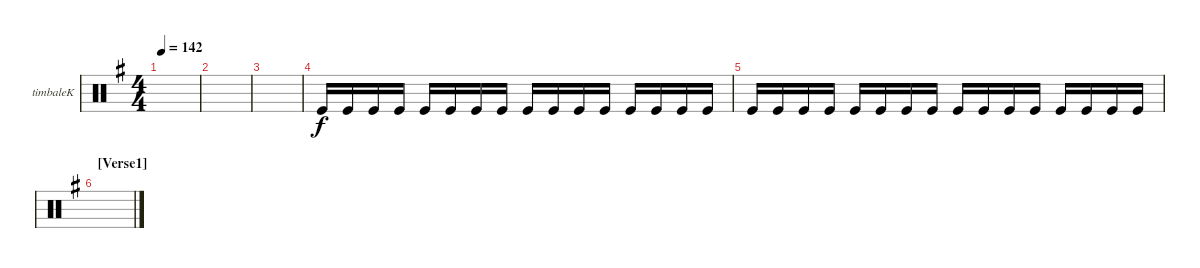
\bracketExtendMode groupsimilarinstruments
\firstSystemTrackNameOrientation horizontal
\otherSystemsTrackNameOrientation horizontal
\track ("Timbale" "timbaleK") {instrument percussion}
\staff {score}
\articulation defaults
\ts (4 4)
\tempo 142
\clef neutral
\ks eminor
|
|
|
"Kick (hit)".16 "Kick (hit)".16 "Kick (hit)".16 "Kick (hit)".16 "Kick (hit)".16 "Kick (hit)".16 "Kick (hit)".16 "Kick (hit)".16 "Kick (hit)".16 "Kick (hit)".16 "Kick (hit)".16 "Kick (hit)".16 "Kick (hit)".16 "Kick (hit)".16 "Kick (hit)".16 "Kick (hit)".16 |
"Kick (hit)".16 "Kick (hit)".16 "Kick (hit)".16 "Kick (hit)".16 "Kick (hit)".16 "Kick (hit)".16 "Kick (hit)".16 "Kick (hit)".16 "Kick (hit)".16 "Kick (hit)".16 "Kick (hit)".16 "Kick (hit)".16 "Kick (hit)".16 "Kick (hit)".16 "Kick (hit)".16 "Kick (hit)".16 |
\section ("" "[Verse1] ")
